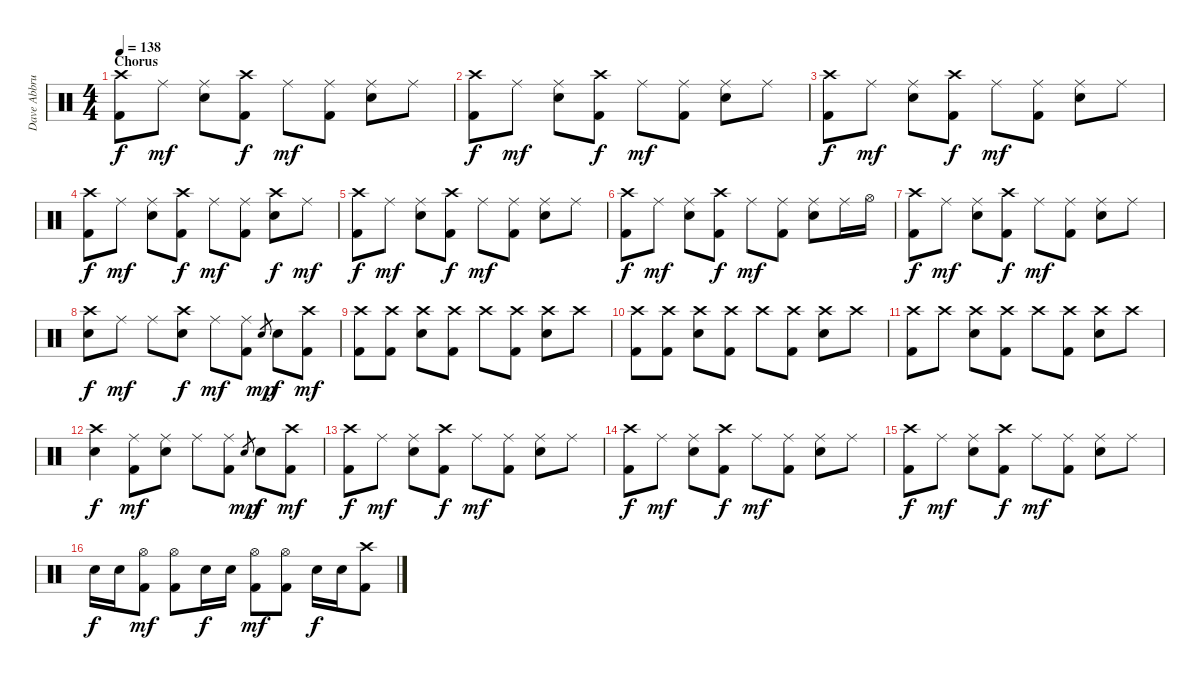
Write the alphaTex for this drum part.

\track ("Dave Abbruze - Drums" "Dave Abbru") {instrument percussion}
\staff {score}
\articulation defaults
\ts (4 4)
\section ("" "Chorus")
\tempo 138
\clef neutral
\ks c
("Crash high (hit)" "Kick (hit) 2").8{dy f} "Ride (middle)".8{dy mf} ("Ride (middle)" "Electric Snare (hit)").8 ("Crash high (hit)" "Kick (hit) 2").8{dy f} "Ride (middle)".8{dy mf} ("Ride (middle)" "Kick (hit) 2").8 ("Ride (middle)" "Electric Snare (hit)").8 "Ride (middle)".8 |
("Crash high (hit)" "Kick (hit) 2").8{dy f} "Ride (middle)".8{dy mf} ("Ride (middle)" "Electric Snare (hit)").8 ("Crash high (hit)" "Kick (hit) 2").8{dy f} "Ride (middle)".8{dy mf} ("Ride (middle)" "Kick (hit) 2").8 ("Ride (middle)" "Electric Snare (hit)").8 "Ride (middle)".8 |
("Crash high (hit)" "Kick (hit) 2").8{dy f} "Ride (middle)".8{dy mf} ("Ride (middle)" "Electric Snare (hit)").8 ("Crash high (hit)" "Kick (hit) 2").8{dy f} "Ride (middle)".8{dy mf} ("Ride (middle)" "Kick (hit) 2").8 ("Ride (middle)" "Electric Snare (hit)").8 "Ride (middle)".8 |
("Crash high (hit)" "Kick (hit) 2").8{dy f} "Ride (middle)".8{dy mf} ("Ride (middle)" "Electric Snare (hit)").8 ("Crash high (hit)" "Kick (hit) 2").8{dy f} "Ride (middle)".8{dy mf} ("Ride (middle)" "Kick (hit) 2").8 ("Crash high (hit)" "Electric Snare (hit)").8{dy f} "Ride (middle)".8{dy mf} |
("Crash high (hit)" "Kick (hit) 2").8{dy f} "Ride (middle)".8{dy mf} ("Ride (middle)" "Electric Snare (hit)").8 ("Crash high (hit)" "Kick (hit) 2").8{dy f} "Ride (middle)".8{dy mf} ("Ride (middle)" "Kick (hit) 2").8 ("Ride (middle)" "Electric Snare (hit)").8 "Ride (middle)".8 |
("Crash high (hit)" "Kick (hit) 2").8{dy f} "Ride (middle)".8{dy mf} ("Ride (middle)" "Electric Snare (hit)").8 ("Crash high (hit)" "Kick (hit) 2").8{dy f} "Ride (middle)".8{dy mf} ("Ride (middle)" "Kick (hit) 2").8 ("Ride (middle)" "Electric Snare (hit)").8 "Ride (middle)".16 "Hi-Hat (open)".16 |
("Crash high (hit)" "Kick (hit) 2").8{dy f} "Ride (middle)".8{dy mf} ("Ride (middle)" "Electric Snare (hit)").8 ("Crash high (hit)" "Kick (hit) 2").8{dy f} "Ride (middle)".8{dy mf} ("Ride (middle)" "Kick (hit) 2").8 ("Ride (middle)" "Electric Snare (hit)").8 "Ride (middle)".8 |
("Crash high (hit)" "Electric Snare (hit)").8{dy f} "Ride (middle)".8{dy mf} "Ride (middle)".8 ("Crash high (hit)" "Electric Snare (hit)").8{dy f} "Ride (middle)".8{dy mf} ("Ride (middle)" "Kick (hit) 2").8 "Electric Snare (hit)".8{gr dy mp} "Electric Snare (hit)".8{dy f} ("Crash high (hit)" "Kick (hit) 2").8{dy mf} |
("Crash high (hit)" "Kick (hit) 2").8 ("Crash high (hit)" "Kick (hit) 2").8 ("Crash high (hit)" "Electric Snare (hit)").8 ("Crash high (hit)" "Kick (hit) 2").8 "Crash high (hit)".8 ("Crash high (hit)" "Kick (hit) 2").8 ("Crash high (hit)" "Electric Snare (hit)").8 "Crash high (hit)".8 |
("Crash high (hit)" "Kick (hit) 2").8 ("Crash high (hit)" "Kick (hit) 2").8 ("Crash high (hit)" "Electric Snare (hit)").8 ("Crash high (hit)" "Kick (hit) 2").8 "Crash high (hit)".8 ("Crash high (hit)" "Kick (hit) 2").8 ("Crash high (hit)" "Electric Snare (hit)").8 "Crash high (hit)".8 |
("Crash high (hit)" "Kick (hit) 2").8 "Crash high (hit)".8 ("Crash high (hit)" "Electric Snare (hit)").8 ("Crash high (hit)" "Kick (hit) 2").8 "Crash high (hit)".8 ("Crash high (hit)" "Kick (hit) 2").8 ("Crash high (hit)" "Electric Snare (hit)").8 "Crash high (hit)".8 |
("Crash high (hit)" "Electric Snare (hit)").4{dy f} ("Ride (middle)" "Kick (hit) 2").8{dy mf} ("Ride (middle)" "Electric Snare (hit)").8 "Ride (middle)".8 ("Ride (middle)" "Kick (hit) 2").8 "Electric Snare (hit)".8{gr dy mp} "Electric Snare (hit)".8{dy f} ("Crash high (hit)" "Kick (hit) 2").8{dy mf} |
("Crash high (hit)" "Kick (hit) 2").8{dy f} "Ride (middle)".8{dy mf} ("Ride (middle)" "Electric Snare (hit)").8 ("Crash high (hit)" "Kick (hit) 2").8{dy f} "Ride (middle)".8{dy mf} ("Ride (middle)" "Kick (hit) 2").8 ("Ride (middle)" "Electric Snare (hit)").8 "Ride (middle)".8 |
("Crash high (hit)" "Kick (hit) 2").8{dy f} "Ride (middle)".8{dy mf} ("Ride (middle)" "Electric Snare (hit)").8 ("Crash high (hit)" "Kick (hit) 2").8{dy f} "Ride (middle)".8{dy mf} ("Ride (middle)" "Kick (hit) 2").8 ("Ride (middle)" "Electric Snare (hit)").8 "Ride (middle)".8 |
("Crash high (hit)" "Kick (hit) 2").8{dy f} "Ride (middle)".8{dy mf} ("Ride (middle)" "Electric Snare (hit)").8 ("Crash high (hit)" "Kick (hit) 2").8{dy f} "Ride (middle)".8{dy mf} ("Ride (middle)" "Kick (hit) 2").8 ("Ride (middle)" "Electric Snare (hit)").8 "Ride (middle)".8 |
"Electric Snare (hit)".16{dy f} "Electric Snare (hit)".16 ("Hi-Hat (open)" "Kick (hit) 2").8{dy mf} ("Hi-Hat (open)" "Kick (hit) 2").8 "Electric Snare (hit)".16{dy f} "Electric Snare (hit)".16 ("Hi-Hat (open)" "Kick (hit) 2").8{dy mf} ("Hi-Hat (open)" "Kick (hit) 2").8 "Electric Snare (hit)".16{dy f} "Electric Snare (hit)".16 ("Crash high (hit)" "Kick (hit) 2").8
